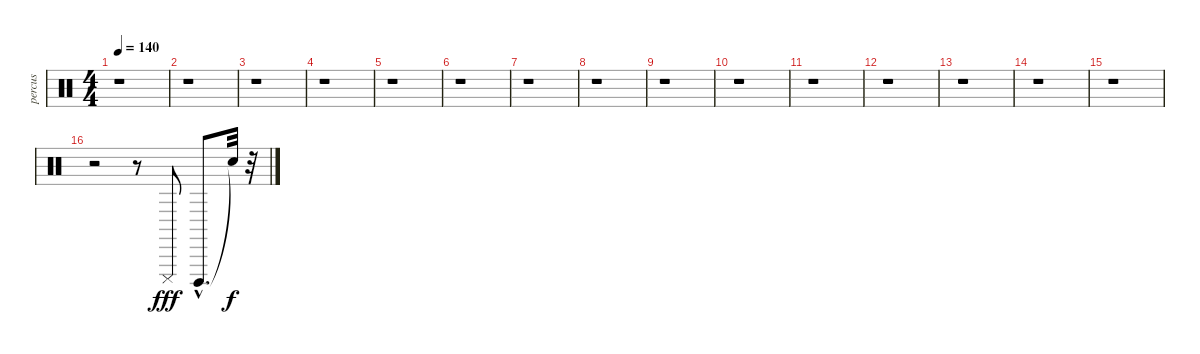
\track ("percus" "percus") {instrument percussion}
\staff {score}
\articulation defaults
\ts (4 4)
\tempo 140
\clef neutral
\ks c
r.1{dy f} |
r.1 |
r.1 |
r.1 |
r.1 |
r.1 |
r.1 |
r.1 |
r.1 |
r.1 |
r.1 |
r.1 |
r.1 |
r.1 |
r.1 |
r.2 r.8 "Cuica (mute)".8{dy fff} "Cuica (open)"{hac}.8{d} "Snare (hit)"{t}.32{dy f} r.32
